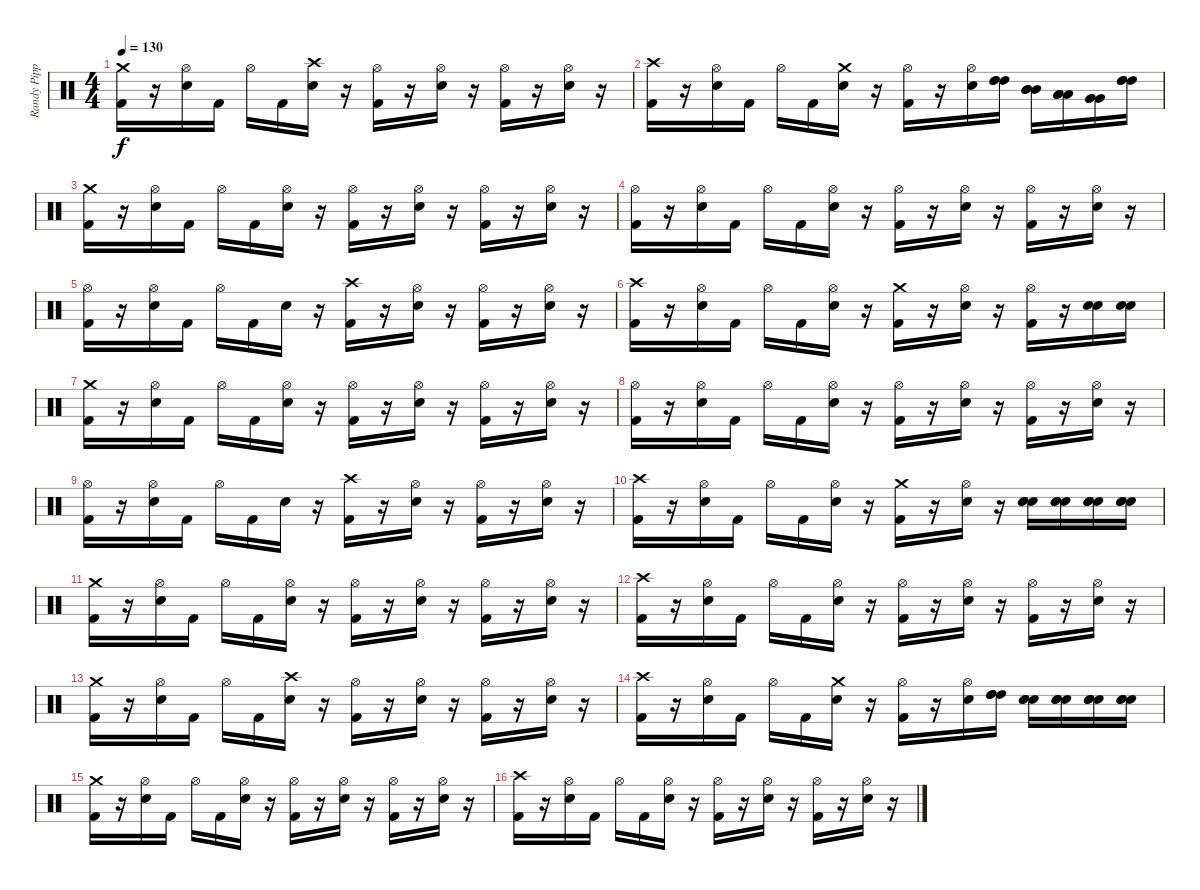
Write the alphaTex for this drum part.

\track ("Randy Pipper" "Randy Pipp") {instrument percussion}
\staff {score}
\articulation defaults
\ts (4 4)
\tempo 130
\clef neutral
\ks c
("Crash medium (hit)" "Kick (hit) 2").16{dy f} r.16 ("Hi-Hat (open)" "Snare (hit) 2").16 "Kick (hit) 2".16 "Hi-Hat (open)".16 "Kick (hit) 2".16 ("Crash high (hit)" "Snare (hit) 2").16 r.16 ("Hi-Hat (open)" "Kick (hit) 2").16 r.16 ("Hi-Hat (open)" "Snare (hit) 2").16 r.16 ("Hi-Hat (open)" "Kick (hit) 2").16 r.16 ("Hi-Hat (open)" "Snare (hit) 2").16 r.16 |
("Crash high (hit)" "Kick (hit) 2").16 r.16 ("Hi-Hat (open)" "Snare (hit) 2").16 "Kick (hit) 2".16 "Hi-Hat (open)".16 "Kick (hit) 2".16 ("Crash medium (hit)" "Snare (hit) 2").16 r.16 ("Hi-Hat (open)" "Kick (hit) 2").16 r.16 ("Hi-Hat (open)" "Snare (hit) 2").16 ("High Tom (hit)" "High Tom (hit)" "High Tom (hit)").16 ("Mid Tom (hit)" "Mid Tom (hit)" "Mid Tom (hit)").16 ("Low Tom (hit)" "Low Tom (hit)" "Low Tom (hit)").16 ("Very Low Tom (hit)" "Very Low Tom (hit)" "Very Low Tom (hit)").16 ("High Tom (hit)" "High Tom (hit)" "High Tom (hit)").16 |
("Crash medium (hit)" "Kick (hit) 2").16 r.16 ("Hi-Hat (open)" "Snare (hit) 2").16 "Kick (hit) 2".16 "Hi-Hat (open)".16 "Kick (hit) 2".16 ("Hi-Hat (open)" "Snare (hit) 2").16 r.16 ("Hi-Hat (open)" "Kick (hit) 2").16 r.16 ("Hi-Hat (open)" "Snare (hit) 2").16 r.16 ("Hi-Hat (open)" "Kick (hit) 2").16 r.16 ("Hi-Hat (open)" "Snare (hit) 2").16 r.16 |
("Hi-Hat (open)" "Kick (hit) 2").16 r.16 ("Hi-Hat (open)" "Snare (hit) 2").16 "Kick (hit) 2".16 "Hi-Hat (open)".16 "Kick (hit) 2".16 ("Hi-Hat (open)" "Snare (hit) 2").16 r.16 ("Hi-Hat (open)" "Kick (hit) 2").16 r.16 ("Hi-Hat (open)" "Snare (hit) 2").16 r.16 ("Hi-Hat (open)" "Kick (hit) 2").16 r.16 ("Hi-Hat (open)" "Snare (hit) 2").16 r.16 |
("Hi-Hat (open)" "Kick (hit) 2").16 r.16 ("Hi-Hat (open)" "Snare (hit) 2").16 "Kick (hit) 2".16 "Hi-Hat (open)".16 "Kick (hit) 2".16 "Snare (hit) 2".16 r.16 ("Crash high (hit)" "Kick (hit) 2").16 r.16 ("Hi-Hat (open)" "Snare (hit) 2").16 r.16 ("Hi-Hat (open)" "Kick (hit) 2").16 r.16 ("Hi-Hat (open)" "Snare (hit) 2").16 r.16 |
("Crash high (hit)" "Kick (hit) 2").16 r.16 ("Hi-Hat (open)" "Snare (hit) 2").16 "Kick (hit) 2".16 "Hi-Hat (open)".16 "Kick (hit) 2".16 ("Hi-Hat (open)" "Snare (hit) 2").16 r.16 ("Crash medium (hit)" "Kick (hit) 2").16 r.16 ("Hi-Hat (open)" "Snare (hit) 2").16 r.16 ("Hi-Hat (open)" "Kick (hit) 2").16 r.16 ("Snare (hit) 2" "Snare (hit) 2").16 ("Snare (hit) 2" "Snare (hit) 2").16 |
("Crash medium (hit)" "Kick (hit) 2").16 r.16 ("Hi-Hat (open)" "Snare (hit) 2").16 "Kick (hit) 2".16 "Hi-Hat (open)".16 "Kick (hit) 2".16 ("Hi-Hat (open)" "Snare (hit) 2").16 r.16 ("Hi-Hat (open)" "Kick (hit) 2").16 r.16 ("Hi-Hat (open)" "Snare (hit) 2").16 r.16 ("Hi-Hat (open)" "Kick (hit) 2").16 r.16 ("Hi-Hat (open)" "Snare (hit) 2").16 r.16 |
("Hi-Hat (open)" "Kick (hit) 2").16 r.16 ("Hi-Hat (open)" "Snare (hit) 2").16 "Kick (hit) 2".16 "Hi-Hat (open)".16 "Kick (hit) 2".16 ("Hi-Hat (open)" "Snare (hit) 2").16 r.16 ("Hi-Hat (open)" "Kick (hit) 2").16 r.16 ("Hi-Hat (open)" "Snare (hit) 2").16 r.16 ("Hi-Hat (open)" "Kick (hit) 2").16 r.16 ("Hi-Hat (open)" "Snare (hit) 2").16 r.16 |
("Hi-Hat (open)" "Kick (hit) 2").16 r.16 ("Hi-Hat (open)" "Snare (hit) 2").16 "Kick (hit) 2".16 "Hi-Hat (open)".16 "Kick (hit) 2".16 "Snare (hit) 2".16 r.16 ("Crash high (hit)" "Kick (hit) 2").16 r.16 ("Hi-Hat (open)" "Snare (hit) 2").16 r.16 ("Hi-Hat (open)" "Kick (hit) 2").16 r.16 ("Hi-Hat (open)" "Snare (hit) 2").16 r.16 |
("Crash high (hit)" "Kick (hit) 2").16 r.16 ("Hi-Hat (open)" "Snare (hit) 2").16 "Kick (hit) 2".16 "Hi-Hat (open)".16 "Kick (hit) 2".16 ("Hi-Hat (open)" "Snare (hit) 2").16 r.16 ("Crash medium (hit)" "Kick (hit) 2").16 r.16 ("Hi-Hat (open)" "Snare (hit) 2").16 r.16 ("Snare (hit) 2" "Snare (hit) 2" "Snare (hit) 2").16 ("Snare (hit) 2" "Snare (hit) 2" "Snare (hit) 2").16 ("Snare (hit) 2" "Snare (hit) 2" "Snare (hit) 2").16 ("Snare (hit) 2" "Snare (hit) 2" "Snare (hit) 2").16 |
("Crash medium (hit)" "Kick (hit) 2").16 r.16 ("Hi-Hat (open)" "Snare (hit) 2").16 "Kick (hit) 2".16 "Hi-Hat (open)".16 "Kick (hit) 2".16 ("Hi-Hat (open)" "Snare (hit) 2").16 r.16 ("Hi-Hat (open)" "Kick (hit) 2").16 r.16 ("Hi-Hat (open)" "Snare (hit) 2").16 r.16 ("Hi-Hat (open)" "Kick (hit) 2").16 r.16 ("Hi-Hat (open)" "Snare (hit) 2").16 r.16 |
("Crash high (hit)" "Kick (hit) 2").16 r.16 ("Hi-Hat (open)" "Snare (hit) 2").16 "Kick (hit) 2".16 "Hi-Hat (open)".16 "Kick (hit) 2".16 ("Hi-Hat (open)" "Snare (hit) 2").16 r.16 ("Hi-Hat (open)" "Kick (hit) 2").16 r.16 ("Hi-Hat (open)" "Snare (hit) 2").16 r.16 ("Hi-Hat (open)" "Kick (hit) 2").16 r.16 ("Hi-Hat (open)" "Snare (hit) 2").16 r.16 |
("Crash medium (hit)" "Kick (hit) 2").16 r.16 ("Hi-Hat (open)" "Snare (hit) 2").16 "Kick (hit) 2".16 "Hi-Hat (open)".16 "Kick (hit) 2".16 ("Crash high (hit)" "Snare (hit) 2").16 r.16 ("Hi-Hat (open)" "Kick (hit) 2").16 r.16 ("Hi-Hat (open)" "Snare (hit) 2").16 r.16 ("Hi-Hat (open)" "Kick (hit) 2").16 r.16 ("Hi-Hat (open)" "Snare (hit) 2").16 r.16 |
("Crash high (hit)" "Kick (hit) 2").16 r.16 ("Hi-Hat (open)" "Snare (hit) 2").16 "Kick (hit) 2".16 "Hi-Hat (open)".16 "Kick (hit) 2".16 ("Crash medium (hit)" "Snare (hit) 2").16 r.16 ("Hi-Hat (open)" "Kick (hit) 2").16 r.16 ("Hi-Hat (open)" "Snare (hit) 2").16 ("High Tom (hit)" "High Tom (hit)" "High Tom (hit)").16 ("Snare (hit) 2" "Snare (hit) 2" "Snare (hit) 2").16 ("Snare (hit) 2" "Snare (hit) 2" "Snare (hit) 2").16 ("Snare (hit) 2" "Snare (hit) 2" "Snare (hit) 2").16 ("Snare (hit) 2" "Snare (hit) 2" "Snare (hit) 2").16 |
("Crash medium (hit)" "Kick (hit) 2").16 r.16 ("Hi-Hat (open)" "Snare (hit) 2").16 "Kick (hit) 2".16 "Hi-Hat (open)".16 "Kick (hit) 2".16 ("Hi-Hat (open)" "Snare (hit) 2").16 r.16 ("Hi-Hat (open)" "Kick (hit) 2").16 r.16 ("Hi-Hat (open)" "Snare (hit) 2").16 r.16 ("Hi-Hat (open)" "Kick (hit) 2").16 r.16 ("Hi-Hat (open)" "Snare (hit) 2").16 r.16 |
("Crash high (hit)" "Kick (hit) 2").16 r.16 ("Hi-Hat (open)" "Snare (hit) 2").16 "Kick (hit) 2".16 "Hi-Hat (open)".16 "Kick (hit) 2".16 ("Hi-Hat (open)" "Snare (hit) 2").16 r.16 ("Hi-Hat (open)" "Kick (hit) 2").16 r.16 ("Hi-Hat (open)" "Snare (hit) 2").16 r.16 ("Hi-Hat (open)" "Kick (hit) 2").16 r.16 ("Hi-Hat (open)" "Snare (hit) 2").16 r.16
